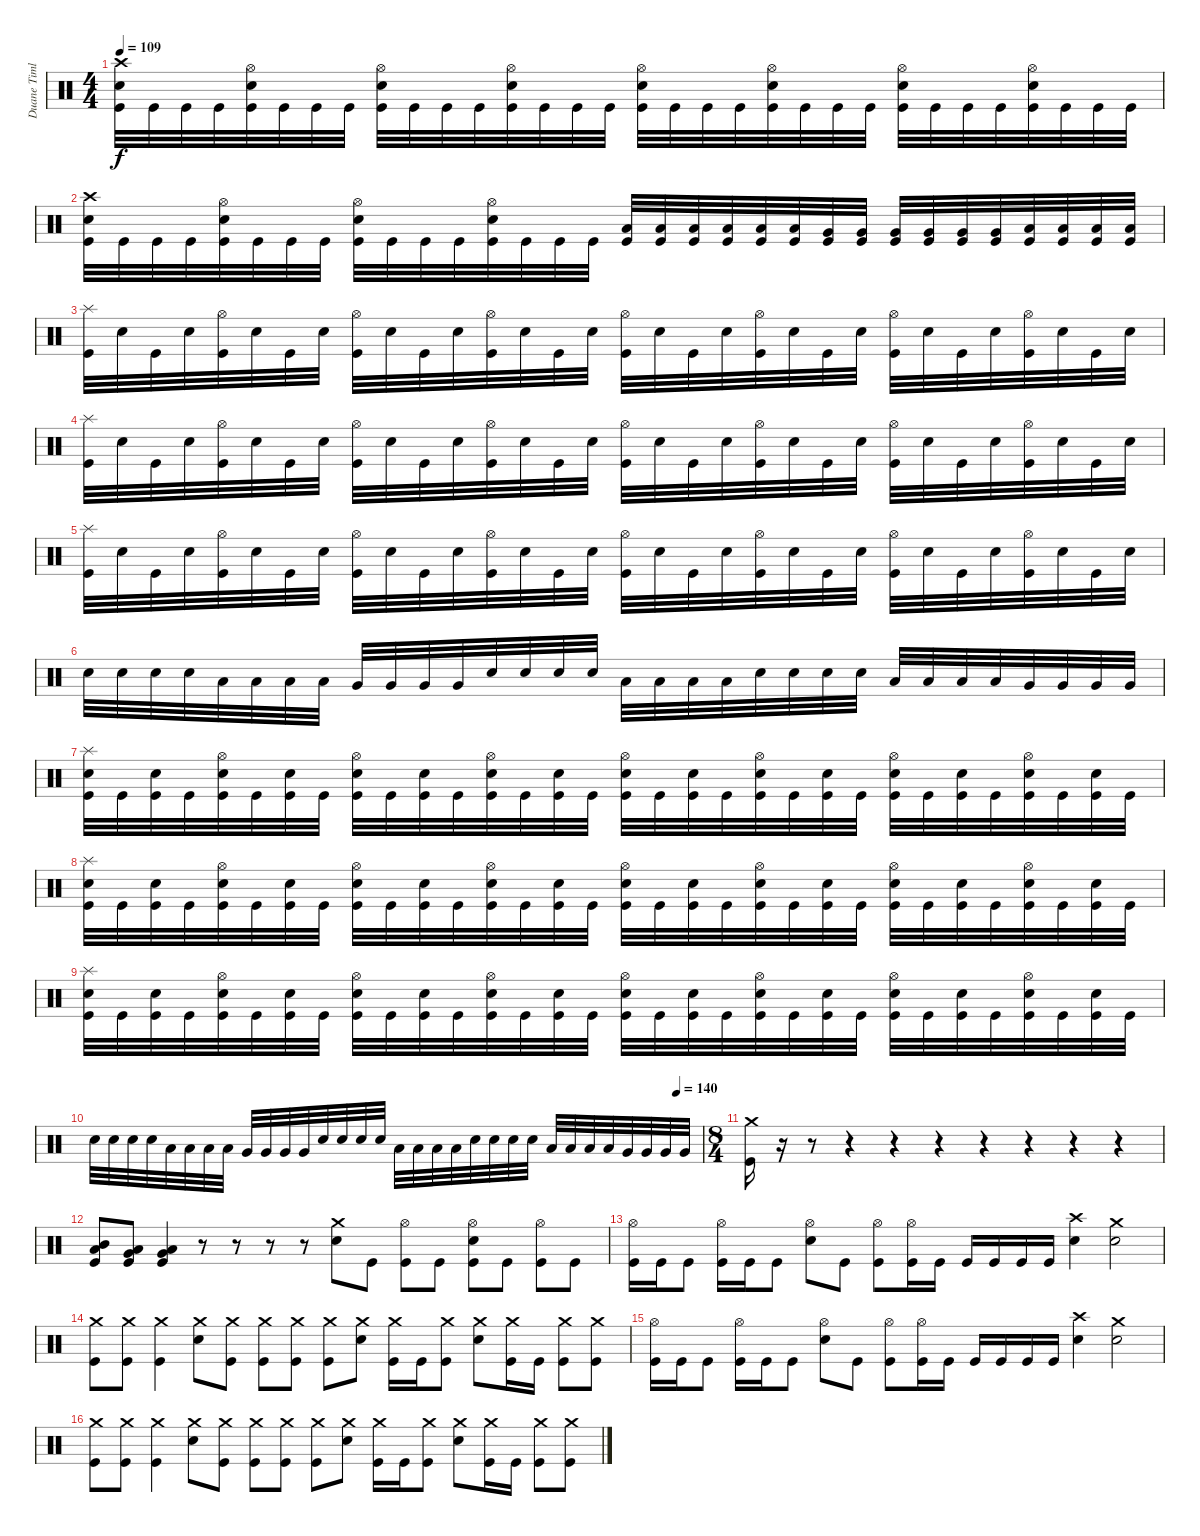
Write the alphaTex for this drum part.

\track ("Duane Timlin" "Duane Timl") {instrument percussion}
\staff {score}
\articulation defaults
\ts (4 4)
\tempo 109
\clef neutral
\ks c
("Kick (hit)" "Snare (hit) 2" "Crash high (hit)").32{dy f} "Kick (hit)".32 "Kick (hit)".32 "Kick (hit)".32 ("Kick (hit)" "Hi-Hat (open)" "Snare (hit) 2").32 "Kick (hit)".32 "Kick (hit)".32 "Kick (hit)".32 ("Kick (hit)" "Snare (hit) 2" "Hi-Hat (open)").32 "Kick (hit)".32 "Kick (hit)".32 "Kick (hit)".32 ("Kick (hit)" "Snare (hit) 2" "Hi-Hat (open)").32 "Kick (hit)".32 "Kick (hit)".32 "Kick (hit)".32 ("Kick (hit)" "Snare (hit) 2" "Hi-Hat (open)").32 "Kick (hit)".32 "Kick (hit)".32 "Kick (hit)".32 ("Kick (hit)" "Snare (hit) 2" "Hi-Hat (open)").32 "Kick (hit)".32 "Kick (hit)".32 "Kick (hit)".32 ("Kick (hit)" "Snare (hit) 2" "Hi-Hat (open)").32 "Kick (hit)".32 "Kick (hit)".32 "Kick (hit)".32 ("Kick (hit)" "Snare (hit) 2" "Hi-Hat (open)").32 "Kick (hit)".32 "Kick (hit)".32 "Kick (hit)".32 |
("Kick (hit)" "Snare (hit) 2" "Crash high (hit)").32 "Kick (hit)".32 "Kick (hit)".32 "Kick (hit)".32 ("Kick (hit)" "Snare (hit) 2" "Hi-Hat (open)").32 "Kick (hit)".32 "Kick (hit)".32 "Kick (hit)".32 ("Kick (hit)" "Snare (hit) 2" "Hi-Hat (open)").32 "Kick (hit)".32 "Kick (hit)".32 "Kick (hit)".32 ("Kick (hit)" "Snare (hit) 2" "Hi-Hat (open)").32 "Kick (hit)".32 "Kick (hit)".32 "Kick (hit)".32 ("Kick (hit)" "Low Tom (hit)").32 ("Kick (hit)" "Low Tom (hit)").32 ("Kick (hit)" "Low Tom (hit)").32 ("Kick (hit)" "Low Tom (hit)").32 ("Kick (hit)" "Low Tom (hit)").32 ("Kick (hit)" "Low Tom (hit)").32 ("Kick (hit)" "Very Low Tom (hit)").32 ("Kick (hit)" "Very Low Tom (hit)").32 ("Kick (hit)" "Very Low Tom (hit)").32 ("Kick (hit)" "Very Low Tom (hit)").32 ("Kick (hit)" "Very Low Tom (hit)").32 ("Kick (hit)" "Very Low Tom (hit)").32 ("Kick (hit)" "Low Floor Tom (hit)").32 ("Kick (hit)" "Low Floor Tom (hit)").32 ("Kick (hit)" "Low Floor Tom (hit)").32 ("Kick (hit)" "Low Floor Tom (hit)").32 |
\section ("" "")
("Kick (hit)" "Splash (hit)").32 "Snare (hit) 2".32 "Kick (hit)".32 "Snare (hit) 2".32 ("Kick (hit)" "Hi-Hat (open)").32 "Snare (hit) 2".32 "Kick (hit)".32 "Snare (hit) 2".32 ("Kick (hit)" "Hi-Hat (open)").32 "Snare (hit) 2".32 "Kick (hit)".32 "Snare (hit) 2".32 ("Kick (hit)" "Hi-Hat (open)").32 "Snare (hit) 2".32 "Kick (hit)".32 "Snare (hit) 2".32 ("Kick (hit)" "Hi-Hat (open)").32 "Snare (hit) 2".32 "Kick (hit)".32 "Snare (hit) 2".32 ("Kick (hit)" "Hi-Hat (open)").32 "Snare (hit) 2".32 "Kick (hit)".32 "Snare (hit) 2".32 ("Kick (hit)" "Hi-Hat (open)").32 "Snare (hit) 2".32 "Kick (hit)".32 "Snare (hit) 2".32 ("Kick (hit)" "Hi-Hat (open)").32 "Snare (hit) 2".32 "Kick (hit)".32 "Snare (hit) 2".32 |
("Kick (hit)" "Splash (hit)").32 "Snare (hit) 2".32 "Kick (hit)".32 "Snare (hit) 2".32 ("Kick (hit)" "Hi-Hat (open)").32 "Snare (hit) 2".32 "Kick (hit)".32 "Snare (hit) 2".32 ("Kick (hit)" "Hi-Hat (open)").32 "Snare (hit) 2".32 "Kick (hit)".32 "Snare (hit) 2".32 ("Kick (hit)" "Hi-Hat (open)").32 "Snare (hit) 2".32 "Kick (hit)".32 "Snare (hit) 2".32 ("Kick (hit)" "Hi-Hat (open)").32 "Snare (hit) 2".32 "Kick (hit)".32 "Snare (hit) 2".32 ("Kick (hit)" "Hi-Hat (open)").32 "Snare (hit) 2".32 "Kick (hit)".32 "Snare (hit) 2".32 ("Kick (hit)" "Hi-Hat (open)").32 "Snare (hit) 2".32 "Kick (hit)".32 "Snare (hit) 2".32 ("Kick (hit)" "Hi-Hat (open)").32 "Snare (hit) 2".32 "Kick (hit)".32 "Snare (hit) 2".32 |
("Kick (hit)" "Splash (hit)").32 "Snare (hit) 2".32 "Kick (hit)".32 "Snare (hit) 2".32 ("Kick (hit)" "Hi-Hat (open)").32 "Snare (hit) 2".32 "Kick (hit)".32 "Snare (hit) 2".32 ("Kick (hit)" "Hi-Hat (open)").32 "Snare (hit) 2".32 "Kick (hit)".32 "Snare (hit) 2".32 ("Kick (hit)" "Hi-Hat (open)").32 "Snare (hit) 2".32 "Kick (hit)".32 "Snare (hit) 2".32 ("Kick (hit)" "Hi-Hat (open)").32 "Snare (hit) 2".32 "Kick (hit)".32 "Snare (hit) 2".32 ("Kick (hit)" "Hi-Hat (open)").32 "Snare (hit) 2".32 "Kick (hit)".32 "Snare (hit) 2".32 ("Kick (hit)" "Hi-Hat (open)").32 "Snare (hit) 2".32 "Kick (hit)".32 "Snare (hit) 2".32 ("Kick (hit)" "Hi-Hat (open)").32 "Snare (hit) 2".32 "Kick (hit)".32 "Snare (hit) 2".32 |
"Snare (hit) 2".32 "Snare (hit) 2".32 "Snare (hit) 2".32 "Snare (hit) 2".32 "Low Tom (hit)".32 "Low Tom (hit)".32 "Low Tom (hit)".32 "Low Tom (hit)".32 "Very Low Tom (hit)".32 "Very Low Tom (hit)".32 "Very Low Tom (hit)".32 "Very Low Tom (hit)".32 "Snare (hit) 2".32 "Snare (hit) 2".32 "Snare (hit) 2".32 "Snare (hit) 2".32 "Low Tom (hit)".32 "Low Tom (hit)".32 "Low Tom (hit)".32 "Low Tom (hit)".32 "Snare (hit) 2".32 "Snare (hit) 2".32 "Snare (hit) 2".32 "Snare (hit) 2".32 "Low Tom (hit)".32 "Low Tom (hit)".32 "Low Tom (hit)".32 "Low Tom (hit)".32 "Very Low Tom (hit)".32 "Very Low Tom (hit)".32 "Very Low Tom (hit)".32 "Very Low Tom (hit)".32 |
("Kick (hit)" "Snare (hit) 2" "Splash (hit)").32 "Kick (hit)".32 ("Kick (hit)" "Snare (hit) 2").32 "Kick (hit)".32 ("Kick (hit)" "Snare (hit) 2" "Hi-Hat (open)").32 "Kick (hit)".32 ("Kick (hit)" "Snare (hit) 2").32 "Kick (hit)".32 ("Kick (hit)" "Snare (hit) 2" "Hi-Hat (open)").32 "Kick (hit)".32 ("Kick (hit)" "Snare (hit) 2").32 "Kick (hit)".32 ("Kick (hit)" "Snare (hit) 2" "Hi-Hat (open)").32 "Kick (hit)".32 ("Kick (hit)" "Snare (hit) 2").32 "Kick (hit)".32 ("Kick (hit)" "Snare (hit) 2" "Hi-Hat (open)").32 "Kick (hit)".32 ("Kick (hit)" "Snare (hit) 2").32 "Kick (hit)".32 ("Kick (hit)" "Snare (hit) 2" "Hi-Hat (open)").32 "Kick (hit)".32 ("Kick (hit)" "Snare (hit) 2").32 "Kick (hit)".32 ("Kick (hit)" "Snare (hit) 2" "Hi-Hat (open)").32 "Kick (hit)".32 ("Kick (hit)" "Snare (hit) 2").32 "Kick (hit)".32 ("Kick (hit)" "Snare (hit) 2" "Hi-Hat (open)").32 "Kick (hit)".32 ("Kick (hit)" "Snare (hit) 2").32 "Kick (hit)".32 |
("Kick (hit)" "Snare (hit) 2" "Splash (hit)").32 "Kick (hit)".32 ("Kick (hit)" "Snare (hit) 2").32 "Kick (hit)".32 ("Kick (hit)" "Snare (hit) 2" "Hi-Hat (open)").32 "Kick (hit)".32 ("Kick (hit)" "Snare (hit) 2").32 "Kick (hit)".32 ("Kick (hit)" "Snare (hit) 2" "Hi-Hat (open)").32 "Kick (hit)".32 ("Kick (hit)" "Snare (hit) 2").32 "Kick (hit)".32 ("Kick (hit)" "Snare (hit) 2" "Hi-Hat (open)").32 "Kick (hit)".32 ("Kick (hit)" "Snare (hit) 2").32 "Kick (hit)".32 ("Kick (hit)" "Snare (hit) 2" "Hi-Hat (open)").32 "Kick (hit)".32 ("Kick (hit)" "Snare (hit) 2").32 "Kick (hit)".32 ("Kick (hit)" "Snare (hit) 2" "Hi-Hat (open)").32 "Kick (hit)".32 ("Kick (hit)" "Snare (hit) 2").32 "Kick (hit)".32 ("Kick (hit)" "Snare (hit) 2" "Hi-Hat (open)").32 "Kick (hit)".32 ("Kick (hit)" "Snare (hit) 2").32 "Kick (hit)".32 ("Kick (hit)" "Snare (hit) 2" "Hi-Hat (open)").32 "Kick (hit)".32 ("Kick (hit)" "Snare (hit) 2").32 "Kick (hit)".32 |
("Kick (hit)" "Snare (hit) 2" "Splash (hit)").32 "Kick (hit)".32 ("Kick (hit)" "Snare (hit) 2").32 "Kick (hit)".32 ("Kick (hit)" "Snare (hit) 2" "Hi-Hat (open)").32 "Kick (hit)".32 ("Kick (hit)" "Snare (hit) 2").32 "Kick (hit)".32 ("Kick (hit)" "Snare (hit) 2" "Hi-Hat (open)").32 "Kick (hit)".32 ("Kick (hit)" "Snare (hit) 2").32 "Kick (hit)".32 ("Kick (hit)" "Snare (hit) 2" "Hi-Hat (open)").32 "Kick (hit)".32 ("Kick (hit)" "Snare (hit) 2").32 "Kick (hit)".32 ("Kick (hit)" "Snare (hit) 2" "Hi-Hat (open)").32 "Kick (hit)".32 ("Kick (hit)" "Snare (hit) 2").32 "Kick (hit)".32 ("Kick (hit)" "Snare (hit) 2" "Hi-Hat (open)").32 "Kick (hit)".32 ("Kick (hit)" "Snare (hit) 2").32 "Kick (hit)".32 ("Kick (hit)" "Snare (hit) 2" "Hi-Hat (open)").32 "Kick (hit)".32 ("Kick (hit)" "Snare (hit) 2").32 "Kick (hit)".32 ("Kick (hit)" "Snare (hit) 2" "Hi-Hat (open)").32 "Kick (hit)".32 ("Kick (hit)" "Snare (hit) 2").32 "Kick (hit)".32 |
\tempo (140 0.9583333333333334)
"Snare (hit) 2".32 "Snare (hit) 2".32 "Snare (hit) 2".32 "Snare (hit) 2".32 "Low Tom (hit)".32 "Low Tom (hit)".32 "Low Tom (hit)".32 "Low Tom (hit)".32 "Very Low Tom (hit)".32 "Very Low Tom (hit)".32 "Very Low Tom (hit)".32 "Very Low Tom (hit)".32 "Snare (hit) 2".32 "Snare (hit) 2".32 "Snare (hit) 2".32 "Snare (hit) 2".32 "Low Tom (hit)".32 "Low Tom (hit)".32 "Low Tom (hit)".32 "Low Tom (hit)".32 "Snare (hit) 2".32 "Snare (hit) 2".32 "Snare (hit) 2".32 "Snare (hit) 2".32 "Low Tom (hit)".32 "Low Tom (hit)".32 "Low Tom (hit)".32 "Low Tom (hit)".32 "Very Low Tom (hit)".32 "Very Low Tom (hit)".32 "Very Low Tom (hit)".32 "Very Low Tom (hit)".32 |
\ts (8 4)
\section ("" "")
("Kick (hit)" "Crash medium (hit)").16 r.16 r.8 r.4 r.4 r.4 r.4 r.4 r.4 r.4 |
("Kick (hit)" "Mid Tom (hit)" "Low Tom (hit)").8 ("Kick (hit)" "Low Tom (hit)" "Very Low Tom (hit)").8 ("Kick (hit)" "Very Low Tom (hit)" "Low Floor Tom (hit)").4 r.8 r.8 r.8 r.8 ("Snare (hit) 2" "Crash medium (hit)").8 "Kick (hit)".8 ("Kick (hit)" "Hi-Hat (open)").8 "Kick (hit)".8 ("Kick (hit)" "Snare (hit) 2" "Hi-Hat (open)").8 "Kick (hit)".8 ("Kick (hit)" "Hi-Hat (open)").8 "Kick (hit)".8 |
("Kick (hit)" "Hi-Hat (open)").16 "Kick (hit)".16 "Kick (hit)".8 ("Kick (hit)" "Hi-Hat (open)").16 "Kick (hit)".16 "Kick (hit)".8 ("Snare (hit) 2" "Hi-Hat (open)").8 "Kick (hit)".8 ("Kick (hit)" "Hi-Hat (open)").8 ("Kick (hit)" "Hi-Hat (open)").16 "Kick (hit)".16 "Kick (hit)".16 "Kick (hit)".16 "Kick (hit)".16 "Kick (hit)".16 ("Snare (hit) 2" "Crash high (hit)").4 ("Snare (hit) 2" "Crash medium (hit)").2 |
("Kick (hit)" "Crash medium (hit)").8 ("Kick (hit)" "Crash medium (hit)").8 ("Kick (hit)" "Crash medium (hit)").4 ("Snare (hit) 2" "Crash medium (hit)").8 ("Kick (hit)" "Crash medium (hit)").8 ("Kick (hit)" "Crash medium (hit)").8 ("Kick (hit)" "Crash medium (hit)").8 ("Kick (hit)" "Crash medium (hit)").8 ("Snare (hit) 2" "Crash medium (hit)").8 ("Kick (hit)" "Crash medium (hit)").16 "Kick (hit)".16 ("Kick (hit)" "Crash medium (hit)").8 ("Snare (hit) 2" "Crash medium (hit)").8 ("Kick (hit)" "Crash medium (hit)").16 "Kick (hit)".16 ("Kick (hit)" "Crash medium (hit)").8 ("Kick (hit)" "Crash medium (hit)").8 |
("Kick (hit)" "Hi-Hat (open)").16 "Kick (hit)".16 "Kick (hit)".8 ("Kick (hit)" "Hi-Hat (open)").16 "Kick (hit)".16 "Kick (hit)".8 ("Snare (hit) 2" "Hi-Hat (open)").8 "Kick (hit)".8 ("Kick (hit)" "Hi-Hat (open)").8 ("Kick (hit)" "Hi-Hat (open)").16 "Kick (hit)".16 "Kick (hit)".16 "Kick (hit)".16 "Kick (hit)".16 "Kick (hit)".16 ("Snare (hit) 2" "Crash high (hit)").4 ("Snare (hit) 2" "Crash medium (hit)").2 |
("Kick (hit)" "Crash medium (hit)").8 ("Kick (hit)" "Crash medium (hit)").8 ("Kick (hit)" "Crash medium (hit)").4 ("Snare (hit) 2" "Crash medium (hit)").8 ("Kick (hit)" "Crash medium (hit)").8 ("Kick (hit)" "Crash medium (hit)").8 ("Kick (hit)" "Crash medium (hit)").8 ("Kick (hit)" "Crash medium (hit)").8 ("Snare (hit) 2" "Crash medium (hit)").8 ("Kick (hit)" "Crash medium (hit)").16 "Kick (hit)".16 ("Kick (hit)" "Crash medium (hit)").8 ("Snare (hit) 2" "Crash medium (hit)").8 ("Kick (hit)" "Crash medium (hit)").16 "Kick (hit)".16 ("Kick (hit)" "Crash medium (hit)").8 ("Kick (hit)" "Crash medium (hit)").8
